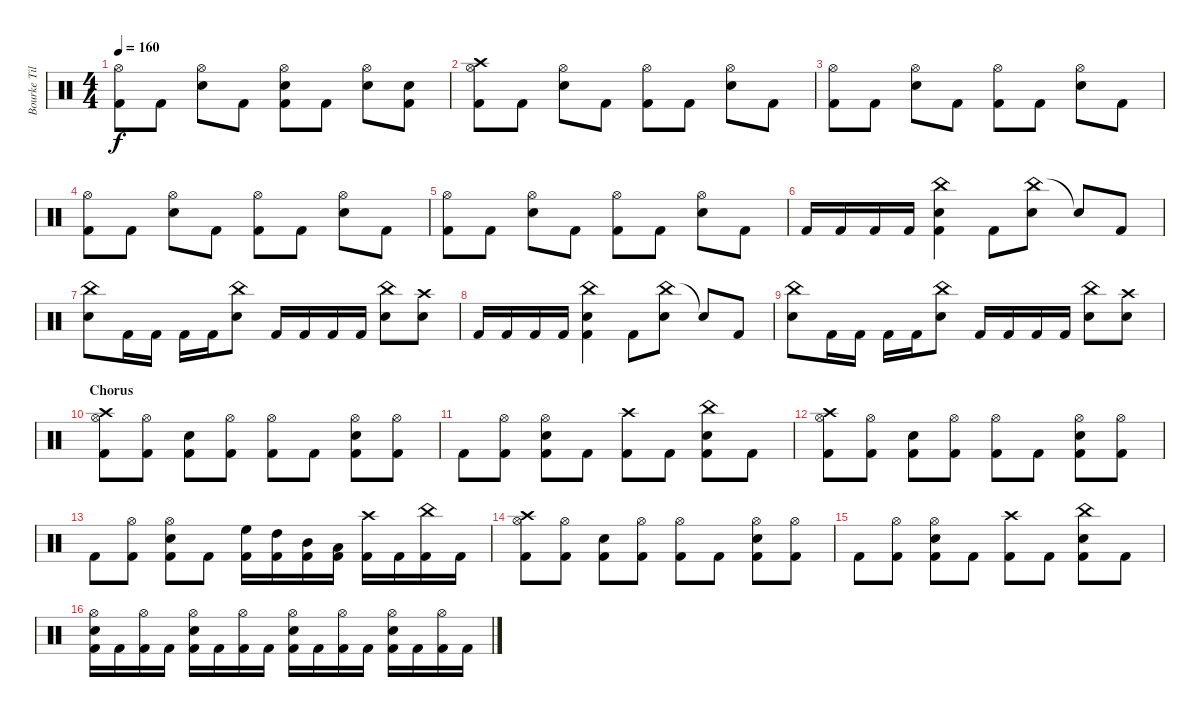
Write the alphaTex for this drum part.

\track ("Bourke Tillman" "Bourke Til") {instrument percussion}
\staff {score}
\articulation defaults
\ts (4 4)
\tempo 160
\clef neutral
\ks c
("Hi-Hat (open)" "Kick (hit) 2").8{dy f} "Kick (hit) 2".8 ("Hi-Hat (open)" "Electric Snare (hit)").8 "Kick (hit) 2".8 ("Hi-Hat (open)" "Electric Snare (hit)" "Kick (hit) 2").8 "Kick (hit) 2".8 ("Hi-Hat (open)" "Electric Snare (hit)").8 ("Electric Snare (hit)" "Kick (hit) 2").8 |
("Crash high (hit)" "Hi-Hat (open)" "Kick (hit) 2").8 "Kick (hit) 2".8 ("Hi-Hat (open)" "Electric Snare (hit)").8 "Kick (hit) 2".8 ("Hi-Hat (open)" "Kick (hit) 2").8 "Kick (hit) 2".8 ("Hi-Hat (open)" "Electric Snare (hit)").8 "Kick (hit) 2".8 |
("Hi-Hat (open)" "Kick (hit) 2").8 "Kick (hit) 2".8 ("Hi-Hat (open)" "Electric Snare (hit)").8 "Kick (hit) 2".8 ("Hi-Hat (open)" "Kick (hit) 2").8 "Kick (hit) 2".8 ("Hi-Hat (open)" "Electric Snare (hit)").8 "Kick (hit) 2".8 |
("Hi-Hat (open)" "Kick (hit) 2").8 "Kick (hit) 2".8 ("Hi-Hat (open)" "Electric Snare (hit)").8 "Kick (hit) 2".8 ("Hi-Hat (open)" "Kick (hit) 2").8 "Kick (hit) 2".8 ("Hi-Hat (open)" "Electric Snare (hit)").8 "Kick (hit) 2".8 |
("Hi-Hat (open)" "Kick (hit) 2").8 "Kick (hit) 2".8 ("Hi-Hat (open)" "Electric Snare (hit)").8 "Kick (hit) 2".8 ("Hi-Hat (open)" "Kick (hit) 2").8 "Kick (hit) 2".8 ("Hi-Hat (open)" "Electric Snare (hit)").8 "Kick (hit) 2".8 |
"Kick (hit) 2".16 "Kick (hit) 2".16 "Kick (hit) 2".16 "Kick (hit) 2".16 ("China (hit)" "Electric Snare (hit)" "Kick (hit) 2").4 "Kick (hit) 2".8 ("China (hit)" "Electric Snare (hit)").8 "Electric Snare (hit)"{t}.8 "Kick (hit) 2".8 |
("China (hit)" "Electric Snare (hit)").8 "Kick (hit) 2".16 "Kick (hit) 2".16 "Kick (hit) 2".16 "Kick (hit) 2".16 ("China (hit)" "Electric Snare (hit)").8 "Kick (hit) 2".16 "Kick (hit) 2".16 "Kick (hit) 2".16 "Kick (hit) 2".16 ("China (hit)" "Electric Snare (hit)").8 ("Crash high (hit)" "Electric Snare (hit)").8 |
"Kick (hit) 2".16 "Kick (hit) 2".16 "Kick (hit) 2".16 "Kick (hit) 2".16 ("China (hit)" "Electric Snare (hit)" "Kick (hit) 2").4 "Kick (hit) 2".8 ("China (hit)" "Electric Snare (hit)").8 "Electric Snare (hit)"{t}.8 "Kick (hit) 2".8 |
("China (hit)" "Electric Snare (hit)").8 "Kick (hit) 2".16 "Kick (hit) 2".16 "Kick (hit) 2".16 "Kick (hit) 2".16 ("China (hit)" "Electric Snare (hit)").8 "Kick (hit) 2".16 "Kick (hit) 2".16 "Kick (hit) 2".16 "Kick (hit) 2".16 ("China (hit)" "Electric Snare (hit)").8 ("Crash high (hit)" "Electric Snare (hit)").8 |
\section ("" "Chorus")
("Crash high (hit)" "Hi-Hat (open)" "Kick (hit) 2").8 ("Hi-Hat (open)" "Kick (hit) 2").8 ("Electric Snare (hit)" "Kick (hit) 2").8 ("Hi-Hat (open)" "Kick (hit) 2").8 ("Hi-Hat (open)" "Kick (hit) 2").8 "Kick (hit) 2".8 ("Hi-Hat (open)" "Electric Snare (hit)" "Kick (hit) 2").8 ("Hi-Hat (open)" "Kick (hit) 2").8 |
"Kick (hit) 2".8 ("Hi-Hat (open)" "Kick (hit) 2").8 ("Hi-Hat (open)" "Electric Snare (hit)" "Kick (hit) 2").8 "Kick (hit) 2".8 ("Crash high (hit)" "Kick (hit) 2").8 "Kick (hit) 2".8 ("China (hit)" "Electric Snare (hit)" "Kick (hit) 2").8 "Kick (hit) 2".8 |
("Crash high (hit)" "Hi-Hat (open)" "Kick (hit) 2").8 ("Hi-Hat (open)" "Kick (hit) 2").8 ("Electric Snare (hit)" "Kick (hit) 2").8 ("Hi-Hat (open)" "Kick (hit) 2").8 ("Hi-Hat (open)" "Kick (hit) 2").8 "Kick (hit) 2".8 ("Hi-Hat (open)" "Electric Snare (hit)" "Kick (hit) 2").8 ("Hi-Hat (open)" "Kick (hit) 2").8 |
"Kick (hit) 2".8 ("Hi-Hat (open)" "Kick (hit) 2").8 ("Hi-Hat (open)" "Electric Snare (hit)" "Kick (hit) 2").8 "Kick (hit) 2".8 ("High Floor Tom (hit)" "Kick (hit) 2").16 ("High Tom (hit)" "Kick (hit) 2").16 ("Mid Tom (hit)" "Kick (hit) 2").16 ("Low Tom (hit)" "Kick (hit) 2").16 ("Crash high (hit)" "Kick (hit) 2").16 "Kick (hit) 2".16 ("China (hit)" "Kick (hit) 2").16 "Kick (hit) 2".16 |
("Crash high (hit)" "Hi-Hat (open)" "Kick (hit) 2").8 ("Hi-Hat (open)" "Kick (hit) 2").8 ("Electric Snare (hit)" "Kick (hit) 2").8 ("Hi-Hat (open)" "Kick (hit) 2").8 ("Hi-Hat (open)" "Kick (hit) 2").8 "Kick (hit) 2".8 ("Hi-Hat (open)" "Electric Snare (hit)" "Kick (hit) 2").8 ("Hi-Hat (open)" "Kick (hit) 2").8 |
"Kick (hit) 2".8 ("Hi-Hat (open)" "Kick (hit) 2").8 ("Hi-Hat (open)" "Electric Snare (hit)" "Kick (hit) 2").8 "Kick (hit) 2".8 ("Crash high (hit)" "Kick (hit) 2").8 "Kick (hit) 2".8 ("China (hit)" "Electric Snare (hit)" "Kick (hit) 2").8 "Kick (hit) 2".8 |
("Hi-Hat (open)" "Electric Snare (hit)" "Kick (hit) 2").16 "Kick (hit) 2".16 ("Hi-Hat (open)" "Kick (hit) 2").16 "Kick (hit) 2".16 ("Hi-Hat (open)" "Electric Snare (hit)" "Kick (hit) 2").16 "Kick (hit) 2".16 ("Hi-Hat (open)" "Kick (hit) 2").16 "Kick (hit) 2".16 ("Hi-Hat (open)" "Electric Snare (hit)" "Kick (hit) 2").16 "Kick (hit) 2".16 ("Hi-Hat (open)" "Kick (hit) 2").16 "Kick (hit) 2".16 ("Hi-Hat (open)" "Electric Snare (hit)" "Kick (hit) 2").16 "Kick (hit) 2".16 ("Hi-Hat (open)" "Kick (hit) 2").16 "Kick (hit) 2".16
